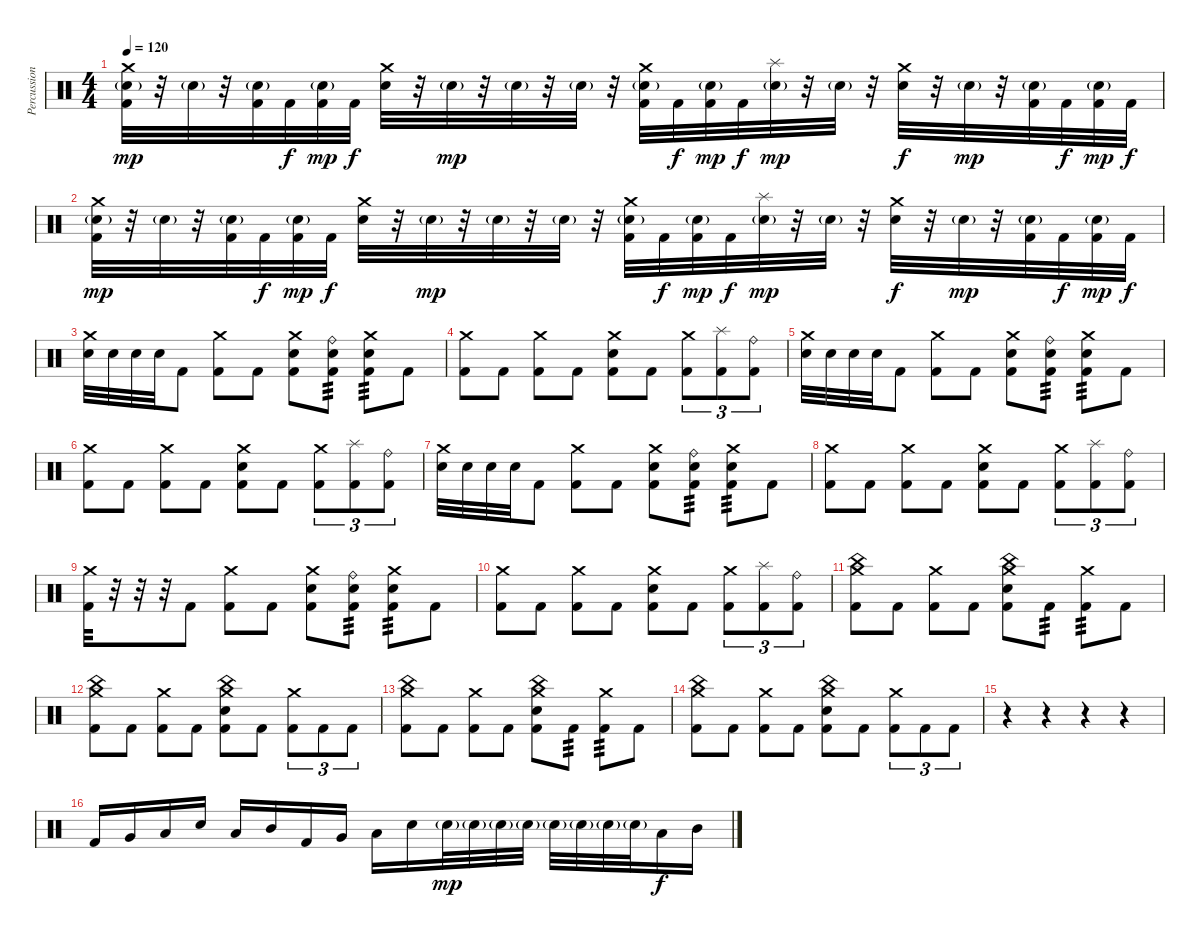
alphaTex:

\track ("Percussion" "Percussion") {instrument percussion}
\staff {score}
\articulation defaults
\ts (4 4)
\tempo 120
\clef neutral
\ks c
("Crash medium (hit)" "Electric Snare (hit)"{g} "Kick (hit) 2").32{dy mp} r.32 "Electric Snare (hit)"{g}.32 r.32 ("Electric Snare (hit)"{g} "Kick (hit) 2").32 "Kick (hit) 2".32{dy f} ("Electric Snare (hit)"{g} "Kick (hit) 2").32{dy mp} "Kick (hit) 2".32{dy f} ("Crash medium (hit)" "Electric Snare (hit)").32 r.32 "Electric Snare (hit)"{g}.32{dy mp} r.32 "Electric Snare (hit)"{g}.32 r.32 "Electric Snare (hit)"{g}.32 r.32 ("Crash medium (hit)" "Electric Snare (hit)"{g} "Kick (hit) 2").32 "Kick (hit) 2".32{dy f} ("Electric Snare (hit)"{g} "Kick (hit) 2").32{dy mp} "Kick (hit) 2".32{dy f} ("Splash (hit)" "Electric Snare (hit)"{g}).32{dy mp} r.32 "Electric Snare (hit)"{g}.32 r.32 ("Crash medium (hit)" "Electric Snare (hit)").32{dy f} r.32 "Electric Snare (hit)"{g}.32{dy mp} r.32 ("Electric Snare (hit)"{g} "Kick (hit) 2").32 "Kick (hit) 2".32{dy f} ("Electric Snare (hit)"{g} "Kick (hit) 2").32{dy mp} "Kick (hit) 2".32{dy f} |
("Crash medium (hit)" "Electric Snare (hit)"{g} "Kick (hit) 2").32{dy mp} r.32 "Electric Snare (hit)"{g}.32 r.32 ("Electric Snare (hit)"{g} "Kick (hit) 2").32 "Kick (hit) 2".32{dy f} ("Electric Snare (hit)"{g} "Kick (hit) 2").32{dy mp} "Kick (hit) 2".32{dy f} ("Crash medium (hit)" "Electric Snare (hit)").32 r.32 "Electric Snare (hit)"{g}.32{dy mp} r.32 "Electric Snare (hit)"{g}.32 r.32 "Electric Snare (hit)"{g}.32 r.32 ("Crash medium (hit)" "Electric Snare (hit)"{g} "Kick (hit) 2").32 "Kick (hit) 2".32{dy f} ("Electric Snare (hit)"{g} "Kick (hit) 2").32{dy mp} "Kick (hit) 2".32{dy f} ("Splash (hit)" "Electric Snare (hit)"{g}).32{dy mp} r.32 "Electric Snare (hit)"{g}.32 r.32 ("Crash medium (hit)" "Electric Snare (hit)").32{dy f} r.32 "Electric Snare (hit)"{g}.32{dy mp} r.32 ("Electric Snare (hit)"{g} "Kick (hit) 2").32 "Kick (hit) 2".32{dy f} ("Electric Snare (hit)"{g} "Kick (hit) 2").32{dy mp} "Kick (hit) 2".32{dy f} |
("Crash medium (hit)" "Electric Snare (hit)").32 "Electric Snare (hit)".32 "Electric Snare (hit)".32 "Electric Snare (hit)".32 "Kick (hit) 2".8 ("Crash medium (hit)" "Kick (hit) 2").8 "Kick (hit) 2".8 ("Crash medium (hit)" "Electric Snare (hit)" "Kick (hit) 2").8 ("Ride (bell)" "Electric Snare (hit)" "Kick (hit) 2").8{tp 3} ("Crash medium (hit)" "Electric Snare (hit)" "Kick (hit) 2").8{tp 3} "Kick (hit) 2".8 |
("Crash medium (hit)" "Kick (hit) 2").8 "Kick (hit) 2".8 ("Crash medium (hit)" "Kick (hit) 2").8 "Kick (hit) 2".8 ("Crash medium (hit)" "Electric Snare (hit)" "Kick (hit) 2").8 "Kick (hit) 2".8 ("Crash medium (hit)" "Kick (hit) 2").8{tu (3 2)} ("Splash (hit)" "Kick (hit) 2").8{tu (3 2)} ("Ride (bell)" "Kick (hit) 2").8{tu (3 2)} |
("Crash medium (hit)" "Electric Snare (hit)").32 "Electric Snare (hit)".32 "Electric Snare (hit)".32 "Electric Snare (hit)".32 "Kick (hit) 2".8 ("Crash medium (hit)" "Kick (hit) 2").8 "Kick (hit) 2".8 ("Crash medium (hit)" "Electric Snare (hit)" "Kick (hit) 2").8 ("Ride (bell)" "Electric Snare (hit)" "Kick (hit) 2").8{tp 3} ("Crash medium (hit)" "Electric Snare (hit)" "Kick (hit) 2").8{tp 3} "Kick (hit) 2".8 |
("Crash medium (hit)" "Kick (hit) 2").8 "Kick (hit) 2".8 ("Crash medium (hit)" "Kick (hit) 2").8 "Kick (hit) 2".8 ("Crash medium (hit)" "Electric Snare (hit)" "Kick (hit) 2").8 "Kick (hit) 2".8 ("Crash medium (hit)" "Kick (hit) 2").8{tu (3 2)} ("Splash (hit)" "Kick (hit) 2").8{tu (3 2)} ("Ride (bell)" "Kick (hit) 2").8{tu (3 2)} |
("Crash medium (hit)" "Electric Snare (hit)").32 "Electric Snare (hit)".32 "Electric Snare (hit)".32 "Electric Snare (hit)".32 "Kick (hit) 2".8 ("Crash medium (hit)" "Kick (hit) 2").8 "Kick (hit) 2".8 ("Crash medium (hit)" "Electric Snare (hit)" "Kick (hit) 2").8 ("Ride (bell)" "Electric Snare (hit)" "Kick (hit) 2").8{tp 3} ("Crash medium (hit)" "Electric Snare (hit)" "Kick (hit) 2").8{tp 3} "Kick (hit) 2".8 |
("Crash medium (hit)" "Kick (hit) 2").8 "Kick (hit) 2".8 ("Crash medium (hit)" "Kick (hit) 2").8 "Kick (hit) 2".8 ("Crash medium (hit)" "Electric Snare (hit)" "Kick (hit) 2").8 "Kick (hit) 2".8 ("Crash medium (hit)" "Kick (hit) 2").8{tu (3 2)} ("Splash (hit)" "Kick (hit) 2").8{tu (3 2)} ("Ride (bell)" "Kick (hit) 2").8{tu (3 2)} |
("Crash medium (hit)" "Kick (hit) 2").32 r.32 r.32 r.32 "Kick (hit) 2".8 ("Crash medium (hit)" "Kick (hit) 2").8 "Kick (hit) 2".8 ("Crash medium (hit)" "Electric Snare (hit)" "Kick (hit) 2").8 ("Ride (bell)" "Electric Snare (hit)" "Kick (hit) 2").8{tp 3} ("Crash medium (hit)" "Electric Snare (hit)" "Kick (hit) 2").8{tp 3} "Kick (hit) 2".8 |
("Crash medium (hit)" "Kick (hit) 2").8 "Kick (hit) 2".8 ("Crash medium (hit)" "Kick (hit) 2").8 "Kick (hit) 2".8 ("Crash medium (hit)" "Electric Snare (hit)" "Kick (hit) 2").8 "Kick (hit) 2".8 ("Crash medium (hit)" "Kick (hit) 2").8{tu (3 2)} ("Splash (hit)" "Kick (hit) 2").8{tu (3 2)} ("Ride (bell)" "Kick (hit) 2").8{tu (3 2)} |
("Crash medium (hit)" "China (hit)" "Kick (hit) 2").8 "Kick (hit) 2".8 ("Crash medium (hit)" "Kick (hit) 2").8 "Kick (hit) 2".8 ("Crash medium (hit)" "China (hit)" "Electric Snare (hit)" "Kick (hit) 2").8 "Kick (hit) 2".8{tp 3} ("Crash medium (hit)" "Kick (hit) 2").8{tp 3} "Kick (hit) 2".8 |
("Crash medium (hit)" "China (hit)" "Kick (hit) 2").8 "Kick (hit) 2".8 ("Crash medium (hit)" "Kick (hit) 2").8 "Kick (hit) 2".8 ("Crash medium (hit)" "China (hit)" "Electric Snare (hit)" "Kick (hit) 2").8 "Kick (hit) 2".8 ("Crash medium (hit)" "Kick (hit) 2").8{tu (3 2)} "Kick (hit) 2".8{tu (3 2)} "Kick (hit) 2".8{tu (3 2)} |
("Crash medium (hit)" "China (hit)" "Kick (hit) 2").8 "Kick (hit) 2".8 ("Crash medium (hit)" "Kick (hit) 2").8 "Kick (hit) 2".8 ("Crash medium (hit)" "China (hit)" "Electric Snare (hit)" "Kick (hit) 2").8 "Kick (hit) 2".8{tp 3} ("Crash medium (hit)" "Kick (hit) 2").8{tp 3} "Kick (hit) 2".8 |
("Crash medium (hit)" "China (hit)" "Kick (hit) 2").8 "Kick (hit) 2".8 ("Crash medium (hit)" "Kick (hit) 2").8 "Kick (hit) 2".8 ("Crash medium (hit)" "China (hit)" "Electric Snare (hit)" "Kick (hit) 2").8 "Kick (hit) 2".8 ("Crash medium (hit)" "Kick (hit) 2").8{tu (3 2)} "Kick (hit) 2".8{tu (3 2)} "Kick (hit) 2".8{tu (3 2)} |
r.4{volume 0} r.4{volume 13} r.4 r.4 |
"Kick (hit) 2".16 "Very Low Tom (hit)".16 "Low Floor Tom (hit)".16 "Electric Snare (hit)".16 "Low Tom (hit)".16 "Mid Tom (hit)".16 "Kick (hit) 2".16 "Very Low Tom (hit)".16 "Low Floor Tom (hit)".16 "Electric Snare (hit)".16 "Electric Snare (hit)"{g}.32{dy mp} "Electric Snare (hit)"{g}.32 "Electric Snare (hit)"{g}.32 "Electric Snare (hit)"{g}.32 "Electric Snare (hit)"{g}.32 "Electric Snare (hit)"{g}.32 "Electric Snare (hit)"{g}.32 "Electric Snare (hit)"{g}.32 "Low Tom (hit)".16{dy f} "Mid Tom (hit)".16
